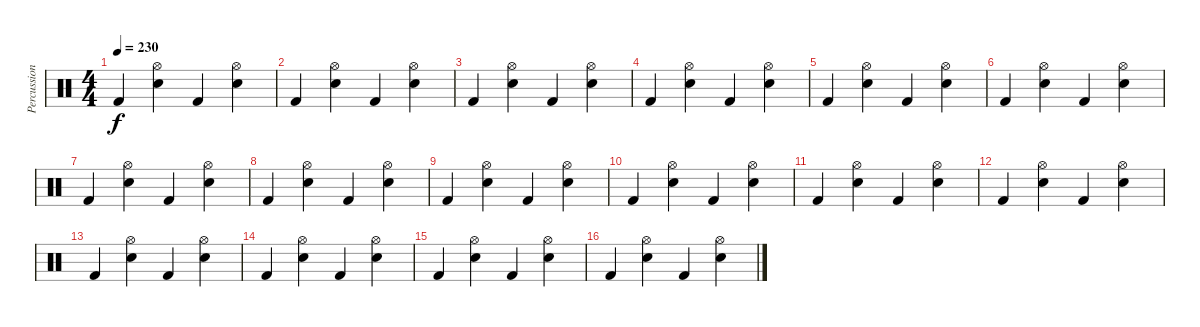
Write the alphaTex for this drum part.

\track ("Percussion" "Percussion") {instrument percussion}
\staff {score}
\articulation defaults
\ts (4 4)
\tempo 230
\clef neutral
\ks c "Kick (hit) 2".4{dy f}
("Hi-Hat (open)" "Electric Snare (hit)").4 "Kick (hit) 2".4 ("Hi-Hat (open)" "Electric Snare (hit)").4 |
"Kick (hit) 2".4 ("Hi-Hat (open)" "Electric Snare (hit)").4 "Kick (hit) 2".4 ("Hi-Hat (open)" "Electric Snare (hit)").4 |
"Kick (hit) 2".4 ("Hi-Hat (open)" "Electric Snare (hit)").4 "Kick (hit) 2".4 ("Hi-Hat (open)" "Electric Snare (hit)").4 |
"Kick (hit) 2".4 ("Hi-Hat (open)" "Electric Snare (hit)").4 "Kick (hit) 2".4 ("Hi-Hat (open)" "Electric Snare (hit)").4 |
"Kick (hit) 2".4 ("Hi-Hat (open)" "Electric Snare (hit)").4 "Kick (hit) 2".4 ("Hi-Hat (open)" "Electric Snare (hit)").4 |
"Kick (hit) 2".4 ("Hi-Hat (open)" "Electric Snare (hit)").4 "Kick (hit) 2".4 ("Hi-Hat (open)" "Electric Snare (hit)").4 |
"Kick (hit) 2".4 ("Hi-Hat (open)" "Electric Snare (hit)").4 "Kick (hit) 2".4 ("Hi-Hat (open)" "Electric Snare (hit)").4 |
"Kick (hit) 2".4 ("Hi-Hat (open)" "Electric Snare (hit)").4 "Kick (hit) 2".4 ("Hi-Hat (open)" "Electric Snare (hit)").4 |
"Kick (hit) 2".4 ("Hi-Hat (open)" "Electric Snare (hit)").4 "Kick (hit) 2".4 ("Hi-Hat (open)" "Electric Snare (hit)").4 |
"Kick (hit) 2".4 ("Hi-Hat (open)" "Electric Snare (hit)").4 "Kick (hit) 2".4 ("Hi-Hat (open)" "Electric Snare (hit)").4 |
"Kick (hit) 2".4 ("Hi-Hat (open)" "Electric Snare (hit)").4 "Kick (hit) 2".4 ("Hi-Hat (open)" "Electric Snare (hit)").4 |
"Kick (hit) 2".4 ("Hi-Hat (open)" "Electric Snare (hit)").4 "Kick (hit) 2".4 ("Hi-Hat (open)" "Electric Snare (hit)").4 |
"Kick (hit) 2".4 ("Hi-Hat (open)" "Electric Snare (hit)").4 "Kick (hit) 2".4 ("Hi-Hat (open)" "Electric Snare (hit)").4 |
"Kick (hit) 2".4 ("Hi-Hat (open)" "Electric Snare (hit)").4 "Kick (hit) 2".4 ("Hi-Hat (open)" "Electric Snare (hit)").4 |
"Kick (hit) 2".4 ("Hi-Hat (open)" "Electric Snare (hit)").4 "Kick (hit) 2".4 ("Hi-Hat (open)" "Electric Snare (hit)").4 |
"Kick (hit) 2".4 ("Hi-Hat (open)" "Electric Snare (hit)").4 "Kick (hit) 2".4 ("Hi-Hat (open)" "Electric Snare (hit)").4
